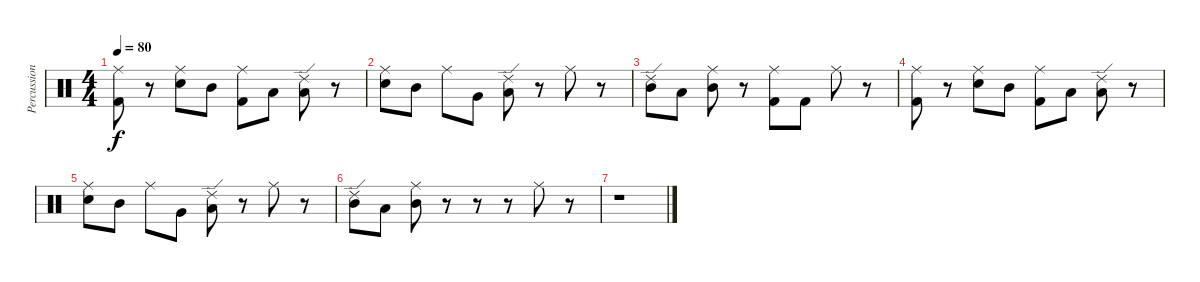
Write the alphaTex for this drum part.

\track ("Percussion" "Percussion") {instrument percussion}
\staff {score}
\articulation defaults
\ts (4 4)
\tempo 80
\clef neutral
\ks c
("Ride (middle)" "Kick (hit) 2").8{dy f} r.8 ("Ride (middle)" "Electric Snare (hit)").8 "Mid Tom (hit)".8 ("Ride (middle)" "Kick (hit) 2").8 "Low Tom (hit)".8 ("Ride (edge) 2" "Low Tom (hit)").8 r.8 |
("Ride (middle)" "Electric Snare (hit)").8 "Mid Tom (hit)".8 "Ride (middle)".8 "Very Low Tom (hit)".8 ("Ride (edge) 2" "Low Tom (hit)").8 r.8 "Ride (middle)".8 r.8 |
("Ride (edge) 2" "Mid Tom (hit)").8 "Low Tom (hit)".8 ("Ride (middle)" "Mid Tom (hit)").8 r.8 ("Ride (middle)" "Kick (hit) 2").8 "Kick (hit) 2".8 "Ride (middle)".8 r.8 |
("Ride (middle)" "Kick (hit) 2").8 r.8 ("Ride (middle)" "Electric Snare (hit)").8 "Mid Tom (hit)".8 ("Ride (middle)" "Kick (hit) 2").8 "Low Tom (hit)".8 ("Ride (edge) 2" "Low Tom (hit)").8 r.8 |
("Ride (middle)" "Electric Snare (hit)").8 "Mid Tom (hit)".8 "Ride (middle)".8 "Very Low Tom (hit)".8 ("Ride (edge) 2" "Low Tom (hit)").8 r.8 "Ride (middle)".8 r.8 |
("Ride (edge) 2" "Mid Tom (hit)").8 "Low Tom (hit)".8 ("Ride (middle)" "Mid Tom (hit)").8 r.8 r.8 r.8 "Ride (middle)".8 r.8 |
r.1
